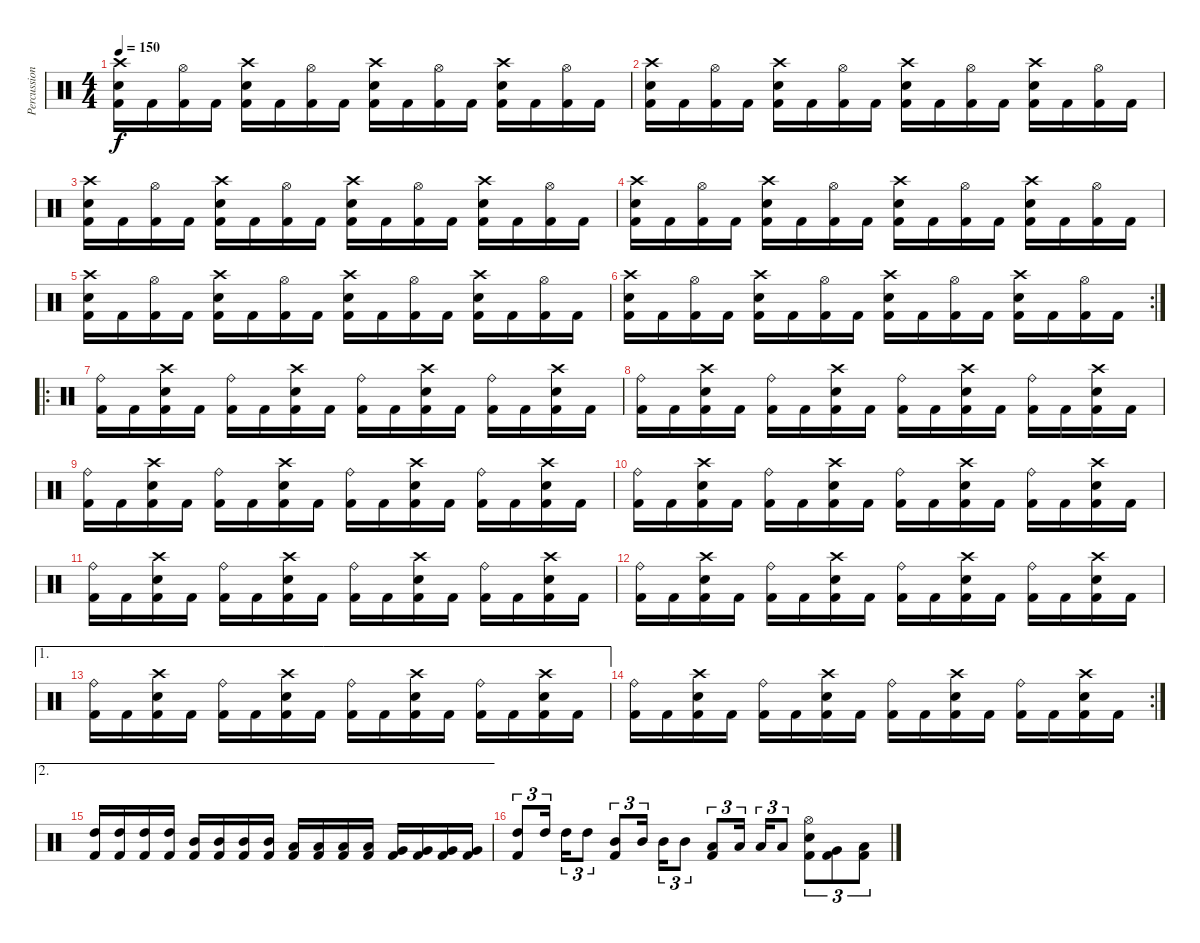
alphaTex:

\track ("Percussion" "Percussion") {instrument percussion}
\staff {score}
\articulation defaults
\ts (4 4)
\tempo 150
\clef neutral
\ks c
("Crash high (hit)" "Electric Snare (hit)" "Kick (hit) 2").16{dy f} "Kick (hit) 2".16 ("Hi-Hat (open)" "Kick (hit) 2").16 "Kick (hit) 2".16 ("Crash high (hit)" "Electric Snare (hit)" "Kick (hit) 2").16 "Kick (hit) 2".16 ("Hi-Hat (open)" "Kick (hit) 2").16 "Kick (hit) 2".16 ("Crash high (hit)" "Electric Snare (hit)" "Kick (hit) 2").16 "Kick (hit) 2".16 ("Hi-Hat (open)" "Kick (hit) 2").16 "Kick (hit) 2".16 ("Crash high (hit)" "Electric Snare (hit)" "Kick (hit) 2").16 "Kick (hit) 2".16 ("Hi-Hat (open)" "Kick (hit) 2").16 "Kick (hit) 2".16 |
("Crash high (hit)" "Electric Snare (hit)" "Kick (hit) 2").16 "Kick (hit) 2".16 ("Hi-Hat (open)" "Kick (hit) 2").16 "Kick (hit) 2".16 ("Crash high (hit)" "Electric Snare (hit)" "Kick (hit) 2").16 "Kick (hit) 2".16 ("Hi-Hat (open)" "Kick (hit) 2").16 "Kick (hit) 2".16 ("Crash high (hit)" "Electric Snare (hit)" "Kick (hit) 2").16 "Kick (hit) 2".16 ("Hi-Hat (open)" "Kick (hit) 2").16 "Kick (hit) 2".16 ("Crash high (hit)" "Electric Snare (hit)" "Kick (hit) 2").16 "Kick (hit) 2".16 ("Hi-Hat (open)" "Kick (hit) 2").16 "Kick (hit) 2".16 |
("Crash high (hit)" "Electric Snare (hit)" "Kick (hit) 2").16 "Kick (hit) 2".16 ("Hi-Hat (open)" "Kick (hit) 2").16 "Kick (hit) 2".16 ("Crash high (hit)" "Electric Snare (hit)" "Kick (hit) 2").16 "Kick (hit) 2".16 ("Hi-Hat (open)" "Kick (hit) 2").16 "Kick (hit) 2".16 ("Crash high (hit)" "Electric Snare (hit)" "Kick (hit) 2").16 "Kick (hit) 2".16 ("Hi-Hat (open)" "Kick (hit) 2").16 "Kick (hit) 2".16 ("Crash high (hit)" "Electric Snare (hit)" "Kick (hit) 2").16 "Kick (hit) 2".16 ("Hi-Hat (open)" "Kick (hit) 2").16 "Kick (hit) 2".16 |
("Crash high (hit)" "Electric Snare (hit)" "Kick (hit) 2").16 "Kick (hit) 2".16 ("Hi-Hat (open)" "Kick (hit) 2").16 "Kick (hit) 2".16 ("Crash high (hit)" "Electric Snare (hit)" "Kick (hit) 2").16 "Kick (hit) 2".16 ("Hi-Hat (open)" "Kick (hit) 2").16 "Kick (hit) 2".16 ("Crash high (hit)" "Electric Snare (hit)" "Kick (hit) 2").16 "Kick (hit) 2".16 ("Hi-Hat (open)" "Kick (hit) 2").16 "Kick (hit) 2".16 ("Crash high (hit)" "Electric Snare (hit)" "Kick (hit) 2").16 "Kick (hit) 2".16 ("Hi-Hat (open)" "Kick (hit) 2").16 "Kick (hit) 2".16 |
("Crash high (hit)" "Electric Snare (hit)" "Kick (hit) 2").16 "Kick (hit) 2".16 ("Hi-Hat (open)" "Kick (hit) 2").16 "Kick (hit) 2".16 ("Crash high (hit)" "Electric Snare (hit)" "Kick (hit) 2").16 "Kick (hit) 2".16 ("Hi-Hat (open)" "Kick (hit) 2").16 "Kick (hit) 2".16 ("Crash high (hit)" "Electric Snare (hit)" "Kick (hit) 2").16 "Kick (hit) 2".16 ("Hi-Hat (open)" "Kick (hit) 2").16 "Kick (hit) 2".16 ("Crash high (hit)" "Electric Snare (hit)" "Kick (hit) 2").16 "Kick (hit) 2".16 ("Hi-Hat (open)" "Kick (hit) 2").16 "Kick (hit) 2".16 |
\rc 2
("Crash high (hit)" "Electric Snare (hit)" "Kick (hit) 2").16 "Kick (hit) 2".16 ("Hi-Hat (open)" "Kick (hit) 2").16 "Kick (hit) 2".16 ("Crash high (hit)" "Electric Snare (hit)" "Kick (hit) 2").16 "Kick (hit) 2".16 ("Hi-Hat (open)" "Kick (hit) 2").16 "Kick (hit) 2".16 ("Crash high (hit)" "Electric Snare (hit)" "Kick (hit) 2").16 "Kick (hit) 2".16 ("Hi-Hat (open)" "Kick (hit) 2").16 "Kick (hit) 2".16 ("Crash high (hit)" "Electric Snare (hit)" "Kick (hit) 2").16 "Kick (hit) 2".16 ("Hi-Hat (open)" "Kick (hit) 2").16 "Kick (hit) 2".16 |
\ro
("Ride (bell)" "Kick (hit) 2").16 "Kick (hit) 2".16 ("Crash high (hit)" "Electric Snare (hit)" "Kick (hit) 2").16 "Kick (hit) 2".16 ("Ride (bell)" "Kick (hit) 2").16 "Kick (hit) 2".16 ("Crash high (hit)" "Electric Snare (hit)" "Kick (hit) 2").16 "Kick (hit) 2".16 ("Ride (bell)" "Kick (hit) 2").16 "Kick (hit) 2".16 ("Crash high (hit)" "Electric Snare (hit)" "Kick (hit) 2").16 "Kick (hit) 2".16 ("Ride (bell)" "Kick (hit) 2").16 "Kick (hit) 2".16 ("Crash high (hit)" "Electric Snare (hit)" "Kick (hit) 2").16 "Kick (hit) 2".16 |
("Ride (bell)" "Kick (hit) 2").16 "Kick (hit) 2".16 ("Crash high (hit)" "Electric Snare (hit)" "Kick (hit) 2").16 "Kick (hit) 2".16 ("Ride (bell)" "Kick (hit) 2").16 "Kick (hit) 2".16 ("Crash high (hit)" "Electric Snare (hit)" "Kick (hit) 2").16 "Kick (hit) 2".16 ("Ride (bell)" "Kick (hit) 2").16 "Kick (hit) 2".16 ("Crash high (hit)" "Electric Snare (hit)" "Kick (hit) 2").16 "Kick (hit) 2".16 ("Ride (bell)" "Kick (hit) 2").16 "Kick (hit) 2".16 ("Crash high (hit)" "Electric Snare (hit)" "Kick (hit) 2").16 "Kick (hit) 2".16 |
("Ride (bell)" "Kick (hit) 2").16 "Kick (hit) 2".16 ("Crash high (hit)" "Electric Snare (hit)" "Kick (hit) 2").16 "Kick (hit) 2".16 ("Ride (bell)" "Kick (hit) 2").16 "Kick (hit) 2".16 ("Crash high (hit)" "Electric Snare (hit)" "Kick (hit) 2").16 "Kick (hit) 2".16 ("Ride (bell)" "Kick (hit) 2").16 "Kick (hit) 2".16 ("Crash high (hit)" "Electric Snare (hit)" "Kick (hit) 2").16 "Kick (hit) 2".16 ("Ride (bell)" "Kick (hit) 2").16 "Kick (hit) 2".16 ("Crash high (hit)" "Electric Snare (hit)" "Kick (hit) 2").16 "Kick (hit) 2".16 |
("Ride (bell)" "Kick (hit) 2").16 "Kick (hit) 2".16 ("Crash high (hit)" "Electric Snare (hit)" "Kick (hit) 2").16 "Kick (hit) 2".16 ("Ride (bell)" "Kick (hit) 2").16 "Kick (hit) 2".16 ("Crash high (hit)" "Electric Snare (hit)" "Kick (hit) 2").16 "Kick (hit) 2".16 ("Ride (bell)" "Kick (hit) 2").16 "Kick (hit) 2".16 ("Crash high (hit)" "Electric Snare (hit)" "Kick (hit) 2").16 "Kick (hit) 2".16 ("Ride (bell)" "Kick (hit) 2").16 "Kick (hit) 2".16 ("Crash high (hit)" "Electric Snare (hit)" "Kick (hit) 2").16 "Kick (hit) 2".16 |
("Ride (bell)" "Kick (hit) 2").16 "Kick (hit) 2".16 ("Crash high (hit)" "Electric Snare (hit)" "Kick (hit) 2").16 "Kick (hit) 2".16 ("Ride (bell)" "Kick (hit) 2").16 "Kick (hit) 2".16 ("Crash high (hit)" "Electric Snare (hit)" "Kick (hit) 2").16 "Kick (hit) 2".16 ("Ride (bell)" "Kick (hit) 2").16 "Kick (hit) 2".16 ("Crash high (hit)" "Electric Snare (hit)" "Kick (hit) 2").16 "Kick (hit) 2".16 ("Ride (bell)" "Kick (hit) 2").16 "Kick (hit) 2".16 ("Crash high (hit)" "Electric Snare (hit)" "Kick (hit) 2").16 "Kick (hit) 2".16 |
("Ride (bell)" "Kick (hit) 2").16 "Kick (hit) 2".16 ("Crash high (hit)" "Electric Snare (hit)" "Kick (hit) 2").16 "Kick (hit) 2".16 ("Ride (bell)" "Kick (hit) 2").16 "Kick (hit) 2".16 ("Crash high (hit)" "Electric Snare (hit)" "Kick (hit) 2").16 "Kick (hit) 2".16 ("Ride (bell)" "Kick (hit) 2").16 "Kick (hit) 2".16 ("Crash high (hit)" "Electric Snare (hit)" "Kick (hit) 2").16 "Kick (hit) 2".16 ("Ride (bell)" "Kick (hit) 2").16 "Kick (hit) 2".16 ("Crash high (hit)" "Electric Snare (hit)" "Kick (hit) 2").16 "Kick (hit) 2".16 |
\ae 1
("Ride (bell)" "Kick (hit) 2").16 "Kick (hit) 2".16 ("Crash high (hit)" "Electric Snare (hit)" "Kick (hit) 2").16 "Kick (hit) 2".16 ("Ride (bell)" "Kick (hit) 2").16 "Kick (hit) 2".16 ("Crash high (hit)" "Electric Snare (hit)" "Kick (hit) 2").16 "Kick (hit) 2".16 ("Ride (bell)" "Kick (hit) 2").16 "Kick (hit) 2".16 ("Crash high (hit)" "Electric Snare (hit)" "Kick (hit) 2").16 "Kick (hit) 2".16 ("Ride (bell)" "Kick (hit) 2").16 "Kick (hit) 2".16 ("Crash high (hit)" "Electric Snare (hit)" "Kick (hit) 2").16 "Kick (hit) 2".16 |
\rc 2
("Ride (bell)" "Kick (hit) 2").16 "Kick (hit) 2".16 ("Crash high (hit)" "Electric Snare (hit)" "Kick (hit) 2").16 "Kick (hit) 2".16 ("Ride (bell)" "Kick (hit) 2").16 "Kick (hit) 2".16 ("Crash high (hit)" "Electric Snare (hit)" "Kick (hit) 2").16 "Kick (hit) 2".16 ("Ride (bell)" "Kick (hit) 2").16 "Kick (hit) 2".16 ("Crash high (hit)" "Electric Snare (hit)" "Kick (hit) 2").16 "Kick (hit) 2".16 ("Ride (bell)" "Kick (hit) 2").16 "Kick (hit) 2".16 ("Crash high (hit)" "Electric Snare (hit)" "Kick (hit) 2").16 "Kick (hit) 2".16 |
\ae 2
("High Tom (hit)" "Kick (hit) 2").16 ("High Tom (hit)" "Kick (hit) 2").16 ("High Tom (hit)" "Kick (hit) 2").16 ("High Tom (hit)" "Kick (hit) 2").16 ("Mid Tom (hit)" "Kick (hit) 2").16 ("Mid Tom (hit)" "Kick (hit) 2").16 ("Mid Tom (hit)" "Kick (hit) 2").16 ("Mid Tom (hit)" "Kick (hit) 2").16 ("Low Tom (hit)" "Kick (hit) 2").16 ("Low Tom (hit)" "Kick (hit) 2").16 ("Low Tom (hit)" "Kick (hit) 2").16 ("Low Tom (hit)" "Kick (hit) 2").16 ("Very Low Tom (hit)" "Kick (hit) 2").16 ("Very Low Tom (hit)" "Kick (hit) 2").16 ("Very Low Tom (hit)" "Kick (hit) 2").16 ("Very Low Tom (hit)" "Kick (hit) 2").16 |
("High Tom (hit)" "Kick (hit) 2").8{tu (3 2)} "High Tom (hit)".16{tu (3 2) beam splitsecondary} "High Tom (hit)".16{tu (3 2)} "High Tom (hit)".8{tu (3 2)} ("Mid Tom (hit)" "Kick (hit) 2").8{tu (3 2)} "Mid Tom (hit)".16{tu (3 2) beam splitsecondary} "Mid Tom (hit)".16{tu (3 2)} "Mid Tom (hit)".8{tu (3 2)} ("Low Tom (hit)" "Kick (hit) 2").8{tu (3 2)} "Low Tom (hit)".16{tu (3 2) beam splitsecondary} "Low Tom (hit)".16{tu (3 2)} "Low Tom (hit)".8{tu (3 2)} ("Hi-Hat (open)" "Electric Snare (hit)" "Kick (hit) 2").8{tu (3 2)} ("Very Low Tom (hit)" "Kick (hit) 2").8{tu (3 2)} ("Low Floor Tom (hit)" "Kick (hit) 2").8{tu (3 2)}
